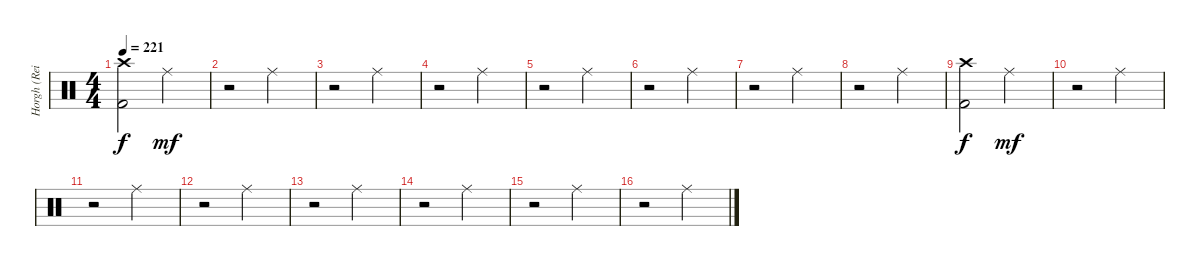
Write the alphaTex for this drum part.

\track ("Horgh (Reidar Horghagen)" "Horgh (Rei") {instrument percussion}
\staff {score}
\articulation defaults
\ts (4 4)
\tempo 221
\clef neutral
\ks c
("Crash high (hit)" "Kick (hit) 2").2{dy f} "Ride (middle)".2{dy mf} |
r.2 "Ride (middle)".2 |
r.2 "Ride (middle)".2 |
r.2 "Ride (middle)".2 |
r.2 "Ride (middle)".2 |
r.2 "Ride (middle)".2 |
r.2 "Ride (middle)".2 |
r.2 "Ride (middle)".2 |
("Crash high (hit)" "Kick (hit) 2").2{dy f} "Ride (middle)".2{dy mf} |
r.2 "Ride (middle)".2 |
r.2 "Ride (middle)".2 |
r.2 "Ride (middle)".2 |
r.2 "Ride (middle)".2 |
r.2 "Ride (middle)".2 |
r.2 "Ride (middle)".2 |
r.2 "Ride (middle)".2
